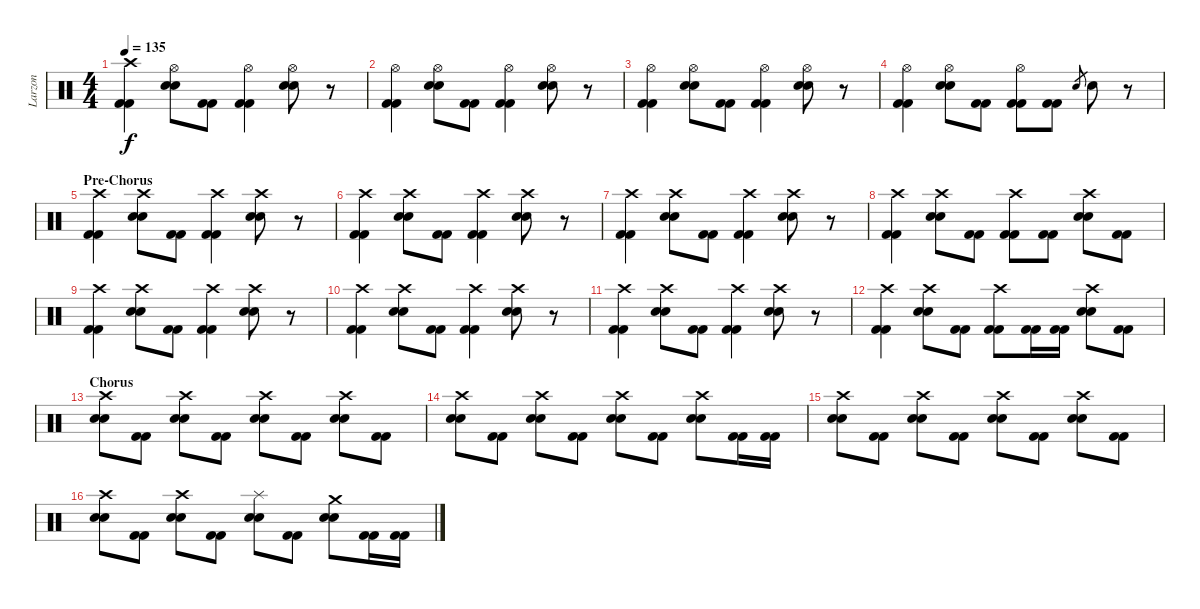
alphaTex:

\track ("Larzon" "Larzon") {instrument percussion}
\staff {score}
\articulation defaults
\ts (4 4)
\tempo 135
\clef neutral
\ks c
("Crash high (hit)" "Kick (hit) 2" "Kick (hit) 2").4{dy f} ("Hi-Hat (open)" "Electric Snare (hit)" "Electric Snare (hit)").8 ("Kick (hit) 2" "Kick (hit) 2").8 ("Hi-Hat (open)" "Kick (hit) 2" "Kick (hit) 2").4 ("Hi-Hat (open)" "Electric Snare (hit)" "Electric Snare (hit)").8 r.8 |
("Hi-Hat (open)" "Kick (hit) 2" "Kick (hit) 2").4 ("Hi-Hat (open)" "Electric Snare (hit)" "Electric Snare (hit)").8 ("Kick (hit) 2" "Kick (hit) 2").8 ("Hi-Hat (open)" "Kick (hit) 2" "Kick (hit) 2").4 ("Hi-Hat (open)" "Electric Snare (hit)" "Electric Snare (hit)").8 r.8 |
("Hi-Hat (open)" "Kick (hit) 2" "Kick (hit) 2").4 ("Hi-Hat (open)" "Electric Snare (hit)" "Electric Snare (hit)").8 ("Kick (hit) 2" "Kick (hit) 2").8 ("Hi-Hat (open)" "Kick (hit) 2" "Kick (hit) 2").4 ("Hi-Hat (open)" "Electric Snare (hit)" "Electric Snare (hit)").8 r.8 |
("Hi-Hat (open)" "Kick (hit) 2" "Kick (hit) 2").4 ("Hi-Hat (open)" "Electric Snare (hit)" "Electric Snare (hit)").8 ("Kick (hit) 2" "Kick (hit) 2").8 ("Hi-Hat (open)" "Kick (hit) 2" "Kick (hit) 2").8 ("Kick (hit) 2" "Kick (hit) 2").8 "Electric Snare (hit)".8{gr} "Electric Snare (hit)".8 r.8 |
\section ("" "Pre-Chorus")
("Crash high (hit)" "Kick (hit) 2" "Kick (hit) 2").4 ("Crash high (hit)" "Electric Snare (hit)" "Electric Snare (hit)").8 ("Kick (hit) 2" "Kick (hit) 2").8 ("Crash high (hit)" "Kick (hit) 2" "Kick (hit) 2").4 ("Crash high (hit)" "Electric Snare (hit)" "Electric Snare (hit)").8 r.8 |
("Crash high (hit)" "Kick (hit) 2" "Kick (hit) 2").4 ("Crash high (hit)" "Electric Snare (hit)" "Electric Snare (hit)").8 ("Kick (hit) 2" "Kick (hit) 2").8 ("Crash high (hit)" "Kick (hit) 2" "Kick (hit) 2").4 ("Crash high (hit)" "Electric Snare (hit)" "Electric Snare (hit)").8 r.8 |
("Crash high (hit)" "Kick (hit) 2" "Kick (hit) 2").4 ("Crash high (hit)" "Electric Snare (hit)" "Electric Snare (hit)").8 ("Kick (hit) 2" "Kick (hit) 2").8 ("Crash high (hit)" "Kick (hit) 2" "Kick (hit) 2").4 ("Crash high (hit)" "Electric Snare (hit)" "Electric Snare (hit)").8 r.8 |
("Crash high (hit)" "Kick (hit) 2" "Kick (hit) 2").4 ("Crash high (hit)" "Electric Snare (hit)" "Electric Snare (hit)").8 ("Kick (hit) 2" "Kick (hit) 2").8 ("Crash high (hit)" "Kick (hit) 2" "Kick (hit) 2").8 ("Kick (hit) 2" "Kick (hit) 2").8 ("Crash high (hit)" "Electric Snare (hit)" "Electric Snare (hit)").8 ("Kick (hit) 2" "Kick (hit) 2").8 |
("Crash high (hit)" "Kick (hit) 2" "Kick (hit) 2").4 ("Crash high (hit)" "Electric Snare (hit)" "Electric Snare (hit)").8 ("Kick (hit) 2" "Kick (hit) 2").8 ("Crash high (hit)" "Kick (hit) 2" "Kick (hit) 2").4 ("Crash high (hit)" "Electric Snare (hit)" "Electric Snare (hit)").8 r.8 |
("Crash high (hit)" "Kick (hit) 2" "Kick (hit) 2").4 ("Crash high (hit)" "Electric Snare (hit)" "Electric Snare (hit)").8 ("Kick (hit) 2" "Kick (hit) 2").8 ("Crash high (hit)" "Kick (hit) 2" "Kick (hit) 2").4 ("Crash high (hit)" "Electric Snare (hit)" "Electric Snare (hit)").8 r.8 |
("Crash high (hit)" "Kick (hit) 2" "Kick (hit) 2").4 ("Crash high (hit)" "Electric Snare (hit)" "Electric Snare (hit)").8 ("Kick (hit) 2" "Kick (hit) 2").8 ("Crash high (hit)" "Kick (hit) 2" "Kick (hit) 2").4 ("Crash high (hit)" "Electric Snare (hit)" "Electric Snare (hit)").8 r.8 |
("Crash high (hit)" "Kick (hit) 2" "Kick (hit) 2").4 ("Crash high (hit)" "Electric Snare (hit)" "Electric Snare (hit)").8 ("Kick (hit) 2" "Kick (hit) 2").8 ("Crash high (hit)" "Kick (hit) 2" "Kick (hit) 2").8 ("Kick (hit) 2" "Kick (hit) 2").16 ("Kick (hit) 2" "Kick (hit) 2").16 ("Crash high (hit)" "Electric Snare (hit)" "Electric Snare (hit)").8 ("Kick (hit) 2" "Kick (hit) 2").8 |
\section ("" "Chorus")
("Crash high (hit)" "Electric Snare (hit)" "Electric Snare (hit)").8 ("Kick (hit) 2" "Kick (hit) 2").8 ("Crash high (hit)" "Electric Snare (hit)" "Electric Snare (hit)").8 ("Kick (hit) 2" "Kick (hit) 2").8 ("Crash high (hit)" "Electric Snare (hit)" "Electric Snare (hit)").8 ("Kick (hit) 2" "Kick (hit) 2").8 ("Crash high (hit)" "Electric Snare (hit)" "Electric Snare (hit)").8 ("Kick (hit) 2" "Kick (hit) 2").8 |
("Crash high (hit)" "Electric Snare (hit)" "Electric Snare (hit)").8 ("Kick (hit) 2" "Kick (hit) 2").8 ("Crash high (hit)" "Electric Snare (hit)" "Electric Snare (hit)").8 ("Kick (hit) 2" "Kick (hit) 2").8 ("Crash high (hit)" "Electric Snare (hit)" "Electric Snare (hit)").8 ("Kick (hit) 2" "Kick (hit) 2").8 ("Crash high (hit)" "Electric Snare (hit)" "Electric Snare (hit)").8 ("Kick (hit) 2" "Kick (hit) 2").16 ("Kick (hit) 2" "Kick (hit) 2").16 |
("Crash high (hit)" "Electric Snare (hit)" "Electric Snare (hit)").8 ("Kick (hit) 2" "Kick (hit) 2").8 ("Crash high (hit)" "Electric Snare (hit)" "Electric Snare (hit)").8 ("Kick (hit) 2" "Kick (hit) 2").8 ("Crash high (hit)" "Electric Snare (hit)" "Electric Snare (hit)").8 ("Kick (hit) 2" "Kick (hit) 2").8 ("Crash high (hit)" "Electric Snare (hit)" "Electric Snare (hit)").8 ("Kick (hit) 2" "Kick (hit) 2").8 |
("Crash high (hit)" "Electric Snare (hit)" "Electric Snare (hit)").8 ("Kick (hit) 2" "Kick (hit) 2").8 ("Crash high (hit)" "Electric Snare (hit)" "Electric Snare (hit)").8 ("Kick (hit) 2" "Kick (hit) 2").8 ("Splash (hit)" "Electric Snare (hit)" "Electric Snare (hit)").8 ("Kick (hit) 2" "Kick (hit) 2").8 ("Crash medium (hit)" "Electric Snare (hit)" "Electric Snare (hit)").8 ("Kick (hit) 2" "Kick (hit) 2").16 ("Kick (hit) 2" "Kick (hit) 2").16
